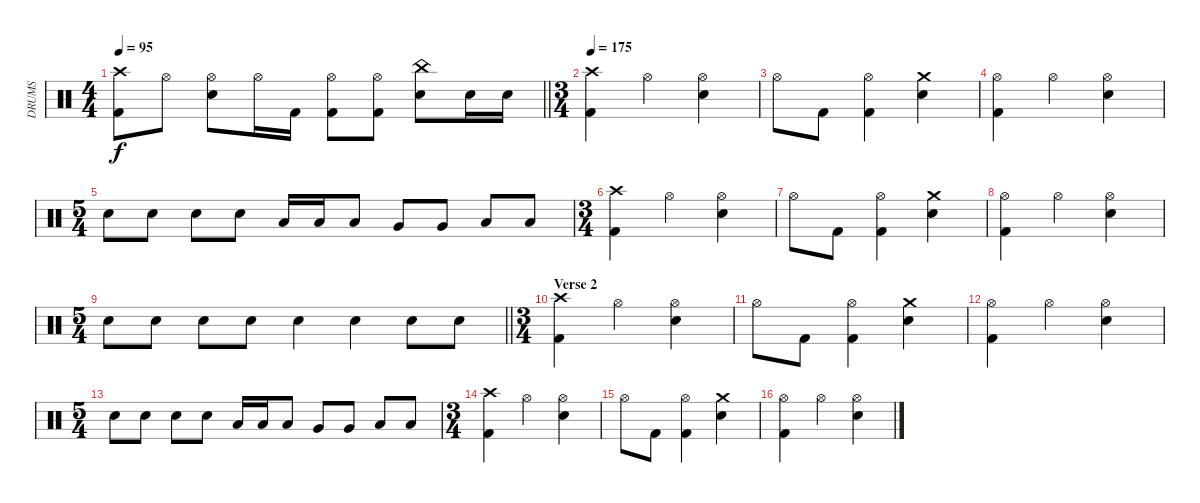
\track ("DRUMS" "DRUMS") {instrument percussion}
\staff {score}
\articulation defaults
\ts (4 4)
\tempo 95
\clef neutral
\barLineRight lightlight
\ks c
("Crash high (hit)" "Kick (hit) 2").8{dy f} "Hi-Hat (open)".8 ("Hi-Hat (open)" "Snare (hit) 2").8 "Hi-Hat (open)".16 "Kick (hit) 2".16 ("Hi-Hat (open)" "Kick (hit) 2").8 ("Hi-Hat (open)" "Kick (hit) 2").8 ("China (hit)" "Snare (hit) 2").8 "Snare (hit) 2".16 "Snare (hit) 2".16 |
\ts (3 4)
\tempo 175
("Crash high (hit)" "Kick (hit) 2").4 "Hi-Hat (open)".4 ("Hi-Hat (open)" "Snare (hit) 2").4 |
"Hi-Hat (open)".8 "Kick (hit) 2".8 ("Hi-Hat (open)" "Kick (hit) 2").4 ("Crash medium (hit)" "Snare (hit) 2").4 |
("Hi-Hat (open)" "Kick (hit) 2").4 "Hi-Hat (open)".4 ("Hi-Hat (open)" "Snare (hit) 2").4 |
\ts (5 4)
"Snare (hit) 2".8 "Snare (hit) 2".8 "Snare (hit) 2".8 "Snare (hit) 2".8 "Low Tom (hit)".16 "Low Tom (hit)".16 "Low Tom (hit)".8 "Very Low Tom (hit)".8 "Very Low Tom (hit)".8 "Low Floor Tom (hit)".8 "Low Floor Tom (hit)".8 |
\ts (3 4)
("Crash high (hit)" "Kick (hit) 2").4 "Hi-Hat (open)".4 ("Hi-Hat (open)" "Snare (hit) 2").4 |
"Hi-Hat (open)".8 "Kick (hit) 2".8 ("Hi-Hat (open)" "Kick (hit) 2").4 ("Crash medium (hit)" "Snare (hit) 2").4 |
("Hi-Hat (open)" "Kick (hit) 2").4 "Hi-Hat (open)".4 ("Hi-Hat (open)" "Snare (hit) 2").4 |
\ts (5 4)
\barLineRight lightlight "Snare (hit) 2".8 "Snare (hit) 2".8 "Snare (hit) 2".8 "Snare (hit) 2".8 "Snare (hit) 2".4 "Snare (hit) 2".4 "Snare (hit) 2".8 "Snare (hit) 2".8
|
\ts (3 4)
\section ("" "Verse 2")
("Crash high (hit)" "Kick (hit) 2").4 "Hi-Hat (open)".4 ("Hi-Hat (open)" "Snare (hit) 2").4 |
"Hi-Hat (open)".8 "Kick (hit) 2".8 ("Hi-Hat (open)" "Kick (hit) 2").4 ("Crash medium (hit)" "Snare (hit) 2").4 |
("Hi-Hat (open)" "Kick (hit) 2").4 "Hi-Hat (open)".4 ("Hi-Hat (open)" "Snare (hit) 2").4 |
\ts (5 4)
"Snare (hit) 2".8 "Snare (hit) 2".8 "Snare (hit) 2".8 "Snare (hit) 2".8 "Low Tom (hit)".16 "Low Tom (hit)".16 "Low Tom (hit)".8 "Very Low Tom (hit)".8 "Very Low Tom (hit)".8 "Low Floor Tom (hit)".8 "Low Floor Tom (hit)".8 |
\ts (3 4)
("Crash high (hit)" "Kick (hit) 2").4 "Hi-Hat (open)".4 ("Hi-Hat (open)" "Snare (hit) 2").4 |
"Hi-Hat (open)".8 "Kick (hit) 2".8 ("Hi-Hat (open)" "Kick (hit) 2").4 ("Crash medium (hit)" "Snare (hit) 2").4 |
("Hi-Hat (open)" "Kick (hit) 2").4 "Hi-Hat (open)".4 ("Hi-Hat (open)" "Snare (hit) 2").4
